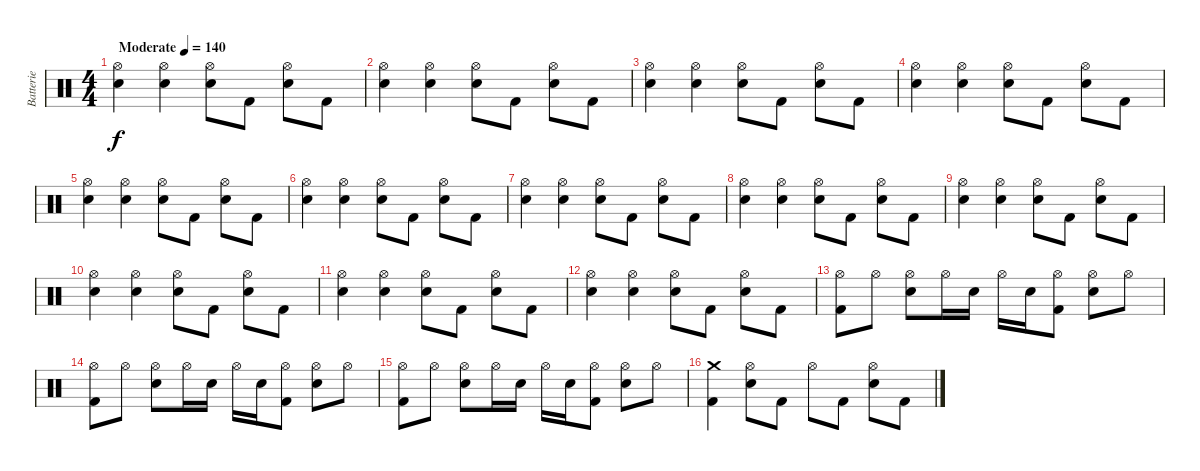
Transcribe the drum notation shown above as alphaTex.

\track ("Batterie" "Batterie") {instrument percussion}
\staff {score}
\articulation defaults
\ts (4 4)
\tempo (140 "Moderate")
\clef neutral
\ks c
("Electric Snare (hit)" "Hi-Hat (open)").4{dy f} ("Electric Snare (hit)" "Hi-Hat (open)").4 ("Electric Snare (hit)" "Hi-Hat (open)").8 "Kick (hit) 2".8 ("Electric Snare (hit)" "Hi-Hat (open)").8 "Kick (hit) 2".8 |
("Electric Snare (hit)" "Hi-Hat (open)").4 ("Electric Snare (hit)" "Hi-Hat (open)").4 ("Electric Snare (hit)" "Hi-Hat (open)").8 "Kick (hit) 2".8 ("Electric Snare (hit)" "Hi-Hat (open)").8 "Kick (hit) 2".8 |
("Electric Snare (hit)" "Hi-Hat (open)").4 ("Electric Snare (hit)" "Hi-Hat (open)").4 ("Electric Snare (hit)" "Hi-Hat (open)").8 "Kick (hit) 2".8 ("Electric Snare (hit)" "Hi-Hat (open)").8 "Kick (hit) 2".8 |
("Electric Snare (hit)" "Hi-Hat (open)").4 ("Electric Snare (hit)" "Hi-Hat (open)").4 ("Electric Snare (hit)" "Hi-Hat (open)").8 "Kick (hit) 2".8 ("Electric Snare (hit)" "Hi-Hat (open)").8 "Kick (hit) 2".8 |
("Electric Snare (hit)" "Hi-Hat (open)").4 ("Electric Snare (hit)" "Hi-Hat (open)").4 ("Electric Snare (hit)" "Hi-Hat (open)").8 "Kick (hit) 2".8 ("Electric Snare (hit)" "Hi-Hat (open)").8 "Kick (hit) 2".8 |
("Electric Snare (hit)" "Hi-Hat (open)").4 ("Electric Snare (hit)" "Hi-Hat (open)").4 ("Electric Snare (hit)" "Hi-Hat (open)").8 "Kick (hit) 2".8 ("Electric Snare (hit)" "Hi-Hat (open)").8 "Kick (hit) 2".8 |
("Electric Snare (hit)" "Hi-Hat (open)").4 ("Electric Snare (hit)" "Hi-Hat (open)").4 ("Electric Snare (hit)" "Hi-Hat (open)").8 "Kick (hit) 2".8 ("Electric Snare (hit)" "Hi-Hat (open)").8 "Kick (hit) 2".8 |
("Electric Snare (hit)" "Hi-Hat (open)").4 ("Electric Snare (hit)" "Hi-Hat (open)").4 ("Electric Snare (hit)" "Hi-Hat (open)").8 "Kick (hit) 2".8 ("Electric Snare (hit)" "Hi-Hat (open)").8 "Kick (hit) 2".8 |
("Electric Snare (hit)" "Hi-Hat (open)").4 ("Electric Snare (hit)" "Hi-Hat (open)").4 ("Electric Snare (hit)" "Hi-Hat (open)").8 "Kick (hit) 2".8 ("Electric Snare (hit)" "Hi-Hat (open)").8 "Kick (hit) 2".8 |
("Electric Snare (hit)" "Hi-Hat (open)").4 ("Electric Snare (hit)" "Hi-Hat (open)").4 ("Electric Snare (hit)" "Hi-Hat (open)").8 "Kick (hit) 2".8 ("Electric Snare (hit)" "Hi-Hat (open)").8 "Kick (hit) 2".8 |
("Electric Snare (hit)" "Hi-Hat (open)").4 ("Electric Snare (hit)" "Hi-Hat (open)").4 ("Electric Snare (hit)" "Hi-Hat (open)").8 "Kick (hit) 2".8 ("Electric Snare (hit)" "Hi-Hat (open)").8 "Kick (hit) 2".8 |
("Electric Snare (hit)" "Hi-Hat (open)").4 ("Electric Snare (hit)" "Hi-Hat (open)").4 ("Electric Snare (hit)" "Hi-Hat (open)").8 "Kick (hit) 2".8 ("Electric Snare (hit)" "Hi-Hat (open)").8 "Kick (hit) 2".8 |
("Kick (hit) 2" "Hi-Hat (open)").8 "Hi-Hat (open)".8 ("Electric Snare (hit)" "Hi-Hat (open)").8 "Hi-Hat (open)".16 "Electric Snare (hit)".16 "Hi-Hat (open)".16 "Electric Snare (hit)".16 ("Kick (hit) 2" "Hi-Hat (open)").8 ("Electric Snare (hit)" "Hi-Hat (open)").8 "Hi-Hat (open)".8 |
("Kick (hit) 2" "Hi-Hat (open)").8 "Hi-Hat (open)".8 ("Electric Snare (hit)" "Hi-Hat (open)").8 "Hi-Hat (open)".16 "Electric Snare (hit)".16 "Hi-Hat (open)".16 "Electric Snare (hit)".16 ("Kick (hit) 2" "Hi-Hat (open)").8 ("Electric Snare (hit)" "Hi-Hat (open)").8 "Hi-Hat (open)".8 |
("Kick (hit) 2" "Hi-Hat (open)").8 "Hi-Hat (open)".8 ("Electric Snare (hit)" "Hi-Hat (open)").8 "Hi-Hat (open)".16 "Electric Snare (hit)".16 "Hi-Hat (open)".16 "Electric Snare (hit)".16 ("Kick (hit) 2" "Hi-Hat (open)").8 ("Electric Snare (hit)" "Hi-Hat (open)").8 "Hi-Hat (open)".8 |
("Kick (hit) 2" "Crash medium (hit)").4 ("Electric Snare (hit)" "Hi-Hat (open)").8 "Kick (hit) 2".8 "Hi-Hat (open)".8 "Kick (hit) 2".8 ("Electric Snare (hit)" "Hi-Hat (open)").8 "Kick (hit) 2".8
